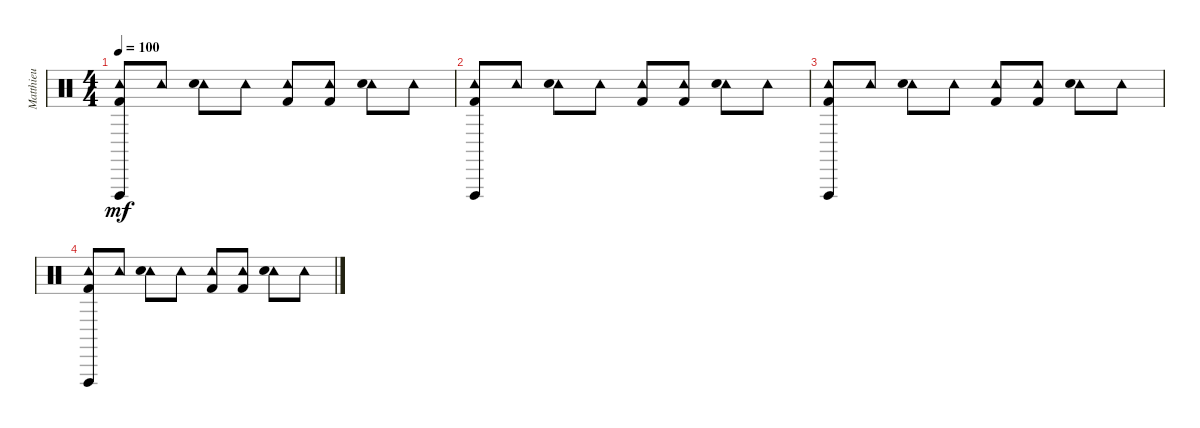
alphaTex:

\track ("Matthieu" "Matthieu") {instrument percussion}
\staff {score}
\articulation defaults
\ts (4 4)
\tempo 100
\clef neutral
\ks c
("Vibraslap (hit)" "Tambourine (hit)" "Kick (hit) 2").8{dy mf} "Tambourine (hit)".8 ("Tambourine (hit)" "Snare (hit) 2").8 "Tambourine (hit)".8 ("Tambourine (hit)" "Kick (hit) 2").8 ("Tambourine (hit)" "Kick (hit) 2").8 ("Tambourine (hit)" "Snare (hit) 2").8 "Tambourine (hit)".8 |
("Vibraslap (hit)" "Tambourine (hit)" "Kick (hit) 2").8 "Tambourine (hit)".8 ("Tambourine (hit)" "Snare (hit) 2").8 "Tambourine (hit)".8 ("Tambourine (hit)" "Kick (hit) 2").8 ("Tambourine (hit)" "Kick (hit) 2").8 ("Tambourine (hit)" "Snare (hit) 2").8 "Tambourine (hit)".8 |
("Vibraslap (hit)" "Tambourine (hit)" "Kick (hit) 2").8 "Tambourine (hit)".8 ("Tambourine (hit)" "Snare (hit) 2").8 "Tambourine (hit)".8 ("Tambourine (hit)" "Kick (hit) 2").8 ("Tambourine (hit)" "Kick (hit) 2").8 ("Tambourine (hit)" "Snare (hit) 2").8 "Tambourine (hit)".8 |
("Vibraslap (hit)" "Tambourine (hit)" "Kick (hit) 2").8 "Tambourine (hit)".8 ("Tambourine (hit)" "Snare (hit) 2").8 "Tambourine (hit)".8 ("Tambourine (hit)" "Kick (hit) 2").8 ("Tambourine (hit)" "Kick (hit) 2").8 ("Tambourine (hit)" "Snare (hit) 2").8 "Tambourine (hit)".8
